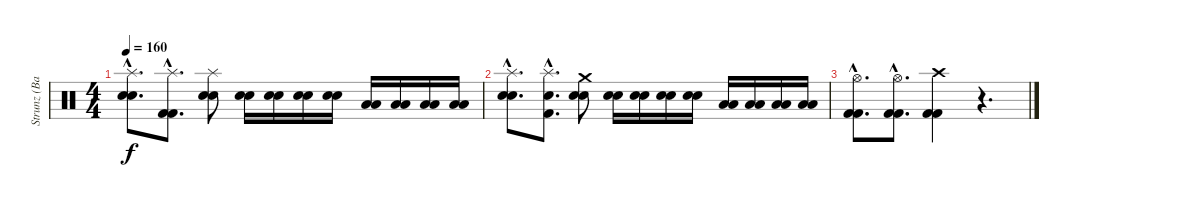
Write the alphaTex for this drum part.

\track ("Strunz (Bateria)" "Strunz (Ba") {instrument percussion}
\staff {score}
\articulation defaults
\ts (4 4)
\tempo 160
\clef neutral
\ks c
("Splash (hit)"{hac} "Snare (hit) 2"{hac} "Snare (hit) 2"{hac}).8{d dy f} ("Splash (hit)"{hac} "Kick (hit) 2"{hac} "Kick (hit) 2"{hac}).8{d} ("Splash (hit)" "Snare (hit) 2" "Snare (hit) 2").8 ("Snare (hit) 2" "Snare (hit) 2").16 ("Snare (hit) 2" "Snare (hit) 2").16 ("Snare (hit) 2" "Snare (hit) 2").16 ("Snare (hit) 2" "Snare (hit) 2").16 ("Low Tom (hit)" "Low Tom (hit)").16 ("Low Tom (hit)" "Low Tom (hit)").16 ("Low Floor Tom (hit)" "Low Floor Tom (hit)").16 ("Low Floor Tom (hit)" "Low Floor Tom (hit)").16 |
("Splash (hit)"{hac} "Snare (hit) 2"{hac} "Snare (hit) 2"{hac}).8{d} ("Splash (hit)"{hac} "Kick (hit) 2"{hac} "Snare (hit) 2"{hac}).8{d} ("Crash medium (hit)" "Snare (hit) 2" "Snare (hit) 2").8 ("Snare (hit) 2" "Snare (hit) 2").16 ("Snare (hit) 2" "Snare (hit) 2").16 ("Snare (hit) 2" "Snare (hit) 2").16 ("Snare (hit) 2" "Snare (hit) 2").16 ("Low Tom (hit)" "Low Tom (hit)").16 ("Low Tom (hit)" "Low Tom (hit)").16 ("Low Floor Tom (hit)" "Low Floor Tom (hit)").16 ("Low Floor Tom (hit)" "Low Floor Tom (hit)").16 |
("Hi-Hat (open)"{hac} "Kick (hit) 2"{hac} "Kick (hit) 2"{hac}).8{d} ("Hi-Hat (open)"{hac} "Kick (hit) 2"{hac} "Kick (hit) 2"{hac}).8{d} ("Crash high (hit)" "Kick (hit) 2" "Kick (hit) 2").4 r.4{d}
